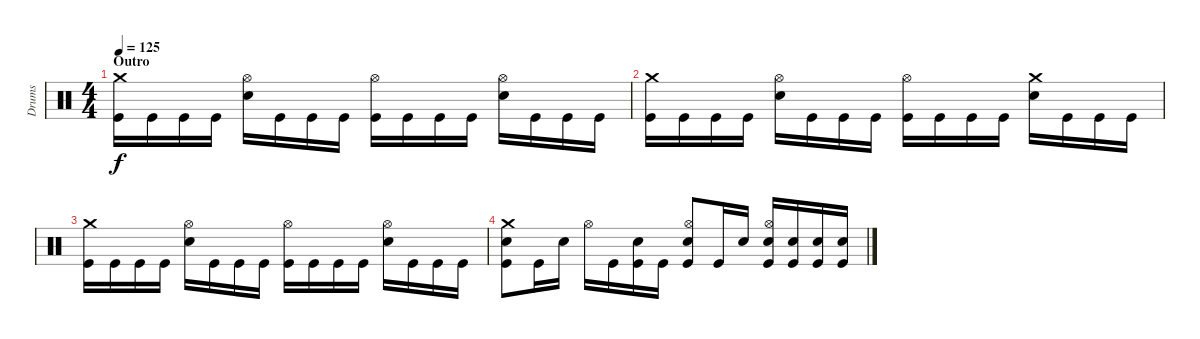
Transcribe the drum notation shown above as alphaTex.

\track ("Drums" "Drums") {instrument percussion}
\staff {score}
\articulation defaults
\ts (4 4)
\section ("" "Outro")
\tempo 125
\clef neutral
\ks c
("Crash medium (hit)" "Kick (hit)").16{dy f} "Kick (hit)".16 "Kick (hit)".16 "Kick (hit)".16 ("Hi-Hat (open)" "Electric Snare (hit)").16 "Kick (hit)".16 "Kick (hit)".16 "Kick (hit)".16 ("Hi-Hat (open)" "Kick (hit)").16 "Kick (hit)".16 "Kick (hit)".16 "Kick (hit)".16 ("Hi-Hat (open)" "Electric Snare (hit)").16 "Kick (hit)".16 "Kick (hit)".16 "Kick (hit)".16 |
("Crash medium (hit)" "Kick (hit)").16 "Kick (hit)".16 "Kick (hit)".16 "Kick (hit)".16 ("Hi-Hat (open)" "Electric Snare (hit)").16 "Kick (hit)".16 "Kick (hit)".16 "Kick (hit)".16 ("Hi-Hat (open)" "Kick (hit)").16 "Kick (hit)".16 "Kick (hit)".16 "Kick (hit)".16 ("Crash medium (hit)" "Electric Snare (hit)").16 "Kick (hit)".16 "Kick (hit)".16 "Kick (hit)".16 |
("Crash medium (hit)" "Kick (hit)").16 "Kick (hit)".16 "Kick (hit)".16 "Kick (hit)".16 ("Hi-Hat (open)" "Electric Snare (hit)").16 "Kick (hit)".16 "Kick (hit)".16 "Kick (hit)".16 ("Hi-Hat (open)" "Kick (hit)").16 "Kick (hit)".16 "Kick (hit)".16 "Kick (hit)".16 ("Hi-Hat (open)" "Electric Snare (hit)").16 "Kick (hit)".16 "Kick (hit)".16 "Kick (hit)".16 |
("Crash medium (hit)" "Electric Snare (hit)" "Kick (hit)").8 "Kick (hit)".16 "Electric Snare (hit)".16 "Hi-Hat (open)".16 "Kick (hit)".16 ("Electric Snare (hit)" "Kick (hit)").16 "Kick (hit)".16 ("Hi-Hat (open)" "Electric Snare (hit)" "Kick (hit)").8 "Kick (hit)".16 "Electric Snare (hit)".16 ("Hi-Hat (open)" "Electric Snare (hit)" "Kick (hit)").16 ("Electric Snare (hit)" "Kick (hit)").16 ("Electric Snare (hit)" "Kick (hit)").16 ("Electric Snare (hit)" "Kick (hit)").16
